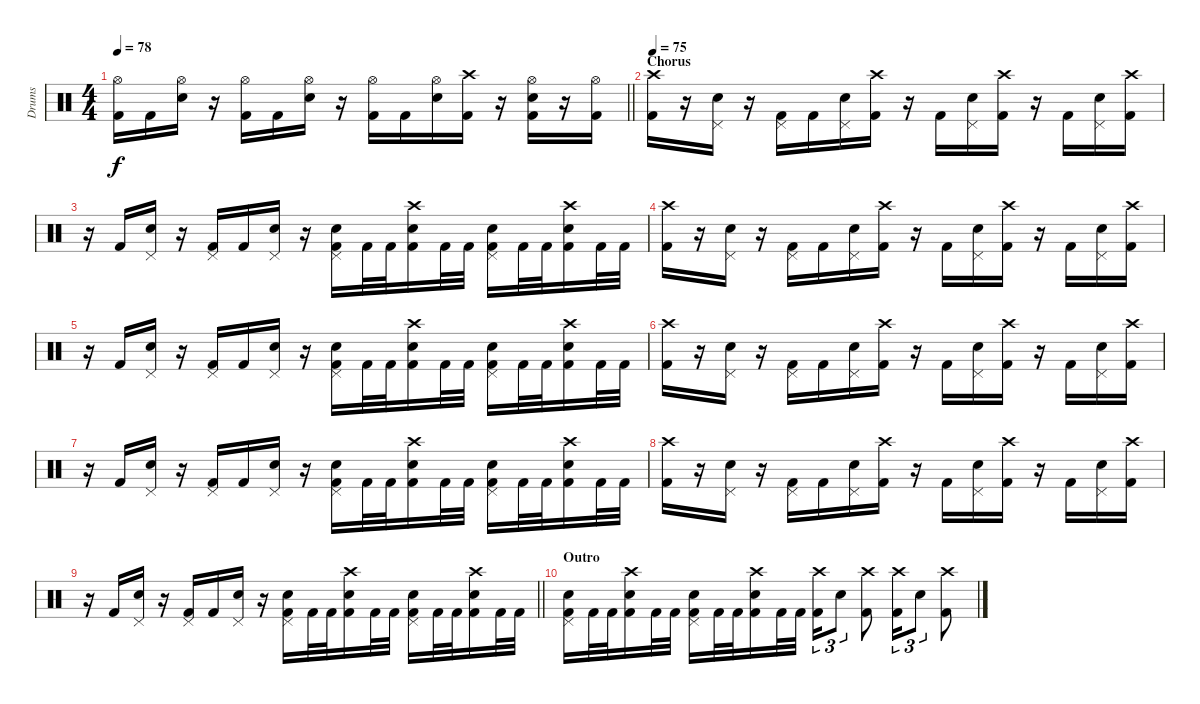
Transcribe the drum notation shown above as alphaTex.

\track ("Drums" "Drums") {instrument percussion}
\staff {score}
\articulation defaults
\ts (4 4)
\tempo 78
\clef neutral
\barLineRight lightlight
\ks c
("Hi-Hat (open)" "Kick (hit) 2").16{dy f} "Kick (hit) 2".16 ("Hi-Hat (open)" "Snare (hit) 2").16 r.16 ("Hi-Hat (open)" "Kick (hit) 2").16 "Kick (hit) 2".16 ("Hi-Hat (open)" "Snare (hit) 2").16 r.16 ("Hi-Hat (open)" "Kick (hit) 2").16 "Kick (hit) 2".16 ("Hi-Hat (open)" "Snare (hit) 2").16 ("Crash high (hit)" "Kick (hit) 2").16 r.16 ("Hi-Hat (open)" "Snare (hit) 2" "Kick (hit) 2").16 r.16 ("Hi-Hat (open)" "Kick (hit) 2").16 |
\section ("" "Chorus")
\tempo 75
("Crash high (hit)" "Kick (hit) 2").16 r.16 ("Pedal Hi-Hat (hit)" "Snare (hit) 2").16 r.16 ("Pedal Hi-Hat (hit)" "Kick (hit) 2").16 "Kick (hit) 2".16 ("Pedal Hi-Hat (hit)" "Snare (hit) 2").16 ("Crash high (hit)" "Kick (hit) 2").16 r.16 "Kick (hit) 2".16 ("Pedal Hi-Hat (hit)" "Snare (hit) 2").16 ("Crash high (hit)" "Kick (hit) 2").16 r.16 "Kick (hit) 2".16 ("Pedal Hi-Hat (hit)" "Snare (hit) 2").16 ("Crash high (hit)" "Kick (hit) 2").16 |
r.16 "Kick (hit) 2".16 ("Pedal Hi-Hat (hit)" "Snare (hit) 2").16 r.16 ("Pedal Hi-Hat (hit)" "Kick (hit) 2").16 "Kick (hit) 2".16 ("Pedal Hi-Hat (hit)" "Snare (hit) 2").16 r.16 ("Pedal Hi-Hat (hit)" "Snare (hit) 2" "Kick (hit) 2").16 "Kick (hit) 2".32 "Kick (hit) 2".32 ("Crash high (hit)" "Snare (hit) 2" "Kick (hit) 2").16 "Kick (hit) 2".32 "Kick (hit) 2".32 ("Pedal Hi-Hat (hit)" "Snare (hit) 2" "Kick (hit) 2").16 "Kick (hit) 2".32 "Kick (hit) 2".32 ("Crash high (hit)" "Snare (hit) 2" "Kick (hit) 2").16 "Kick (hit) 2".32 "Kick (hit) 2".32 |
("Crash high (hit)" "Kick (hit) 2").16 r.16 ("Pedal Hi-Hat (hit)" "Snare (hit) 2").16 r.16 ("Pedal Hi-Hat (hit)" "Kick (hit) 2").16 "Kick (hit) 2".16 ("Pedal Hi-Hat (hit)" "Snare (hit) 2").16 ("Crash high (hit)" "Kick (hit) 2").16 r.16 "Kick (hit) 2".16 ("Pedal Hi-Hat (hit)" "Snare (hit) 2").16 ("Crash high (hit)" "Kick (hit) 2").16 r.16 "Kick (hit) 2".16 ("Pedal Hi-Hat (hit)" "Snare (hit) 2").16 ("Crash high (hit)" "Kick (hit) 2").16 |
r.16 "Kick (hit) 2".16 ("Pedal Hi-Hat (hit)" "Snare (hit) 2").16 r.16 ("Pedal Hi-Hat (hit)" "Kick (hit) 2").16 "Kick (hit) 2".16 ("Pedal Hi-Hat (hit)" "Snare (hit) 2").16 r.16 ("Pedal Hi-Hat (hit)" "Snare (hit) 2" "Kick (hit) 2").16 "Kick (hit) 2".32 "Kick (hit) 2".32 ("Crash high (hit)" "Snare (hit) 2" "Kick (hit) 2").16 "Kick (hit) 2".32 "Kick (hit) 2".32 ("Pedal Hi-Hat (hit)" "Snare (hit) 2" "Kick (hit) 2").16 "Kick (hit) 2".32 "Kick (hit) 2".32 ("Crash high (hit)" "Snare (hit) 2" "Kick (hit) 2").16 "Kick (hit) 2".32 "Kick (hit) 2".32 |
("Crash high (hit)" "Kick (hit) 2").16 r.16 ("Pedal Hi-Hat (hit)" "Snare (hit) 2").16 r.16 ("Pedal Hi-Hat (hit)" "Kick (hit) 2").16 "Kick (hit) 2".16 ("Pedal Hi-Hat (hit)" "Snare (hit) 2").16 ("Crash high (hit)" "Kick (hit) 2").16 r.16 "Kick (hit) 2".16 ("Pedal Hi-Hat (hit)" "Snare (hit) 2").16 ("Crash high (hit)" "Kick (hit) 2").16 r.16 "Kick (hit) 2".16 ("Pedal Hi-Hat (hit)" "Snare (hit) 2").16 ("Crash high (hit)" "Kick (hit) 2").16 |
r.16 "Kick (hit) 2".16 ("Pedal Hi-Hat (hit)" "Snare (hit) 2").16 r.16 ("Pedal Hi-Hat (hit)" "Kick (hit) 2").16 "Kick (hit) 2".16 ("Pedal Hi-Hat (hit)" "Snare (hit) 2").16 r.16 ("Pedal Hi-Hat (hit)" "Snare (hit) 2" "Kick (hit) 2").16 "Kick (hit) 2".32 "Kick (hit) 2".32 ("Crash high (hit)" "Snare (hit) 2" "Kick (hit) 2").16 "Kick (hit) 2".32 "Kick (hit) 2".32 ("Pedal Hi-Hat (hit)" "Snare (hit) 2" "Kick (hit) 2").16 "Kick (hit) 2".32 "Kick (hit) 2".32 ("Crash high (hit)" "Snare (hit) 2" "Kick (hit) 2").16 "Kick (hit) 2".32 "Kick (hit) 2".32 |
("Crash high (hit)" "Kick (hit) 2").16 r.16 ("Pedal Hi-Hat (hit)" "Snare (hit) 2").16 r.16 ("Pedal Hi-Hat (hit)" "Kick (hit) 2").16 "Kick (hit) 2".16 ("Pedal Hi-Hat (hit)" "Snare (hit) 2").16 ("Crash high (hit)" "Kick (hit) 2").16 r.16 "Kick (hit) 2".16 ("Pedal Hi-Hat (hit)" "Snare (hit) 2").16 ("Crash high (hit)" "Kick (hit) 2").16 r.16 "Kick (hit) 2".16 ("Pedal Hi-Hat (hit)" "Snare (hit) 2").16 ("Crash high (hit)" "Kick (hit) 2").16 |
\barLineRight lightlight
r.16 "Kick (hit) 2".16 ("Pedal Hi-Hat (hit)" "Snare (hit) 2").16 r.16 ("Pedal Hi-Hat (hit)" "Kick (hit) 2").16 "Kick (hit) 2".16 ("Pedal Hi-Hat (hit)" "Snare (hit) 2").16 r.16 ("Pedal Hi-Hat (hit)" "Snare (hit) 2" "Kick (hit) 2").16 "Kick (hit) 2".32 "Kick (hit) 2".32 ("Crash high (hit)" "Snare (hit) 2" "Kick (hit) 2").16 "Kick (hit) 2".32 "Kick (hit) 2".32 ("Pedal Hi-Hat (hit)" "Snare (hit) 2" "Kick (hit) 2").16 "Kick (hit) 2".32 "Kick (hit) 2".32 ("Crash high (hit)" "Snare (hit) 2" "Kick (hit) 2").16 "Kick (hit) 2".32 "Kick (hit) 2".32 |
\section ("" "Outro")
("Pedal Hi-Hat (hit)" "Snare (hit) 2" "Kick (hit) 2").16 "Kick (hit) 2".32 "Kick (hit) 2".32 ("Crash high (hit)" "Snare (hit) 2" "Kick (hit) 2").16 "Kick (hit) 2".32 "Kick (hit) 2".32 ("Pedal Hi-Hat (hit)" "Snare (hit) 2" "Kick (hit) 2").16 "Kick (hit) 2".32 "Kick (hit) 2".32 ("Crash high (hit)" "Snare (hit) 2" "Kick (hit) 2").16 "Kick (hit) 2".32 "Kick (hit) 2".32 ("Crash high (hit)" "Kick (hit) 2").16{tu (3 2)} "Snare (hit) 2".8{tu (3 2)} ("Crash high (hit)" "Kick (hit) 2").8 ("Crash high (hit)" "Kick (hit) 2").16{tu (3 2)} "Snare (hit) 2".8{tu (3 2)} ("Crash high (hit)" "Kick (hit) 2").8
